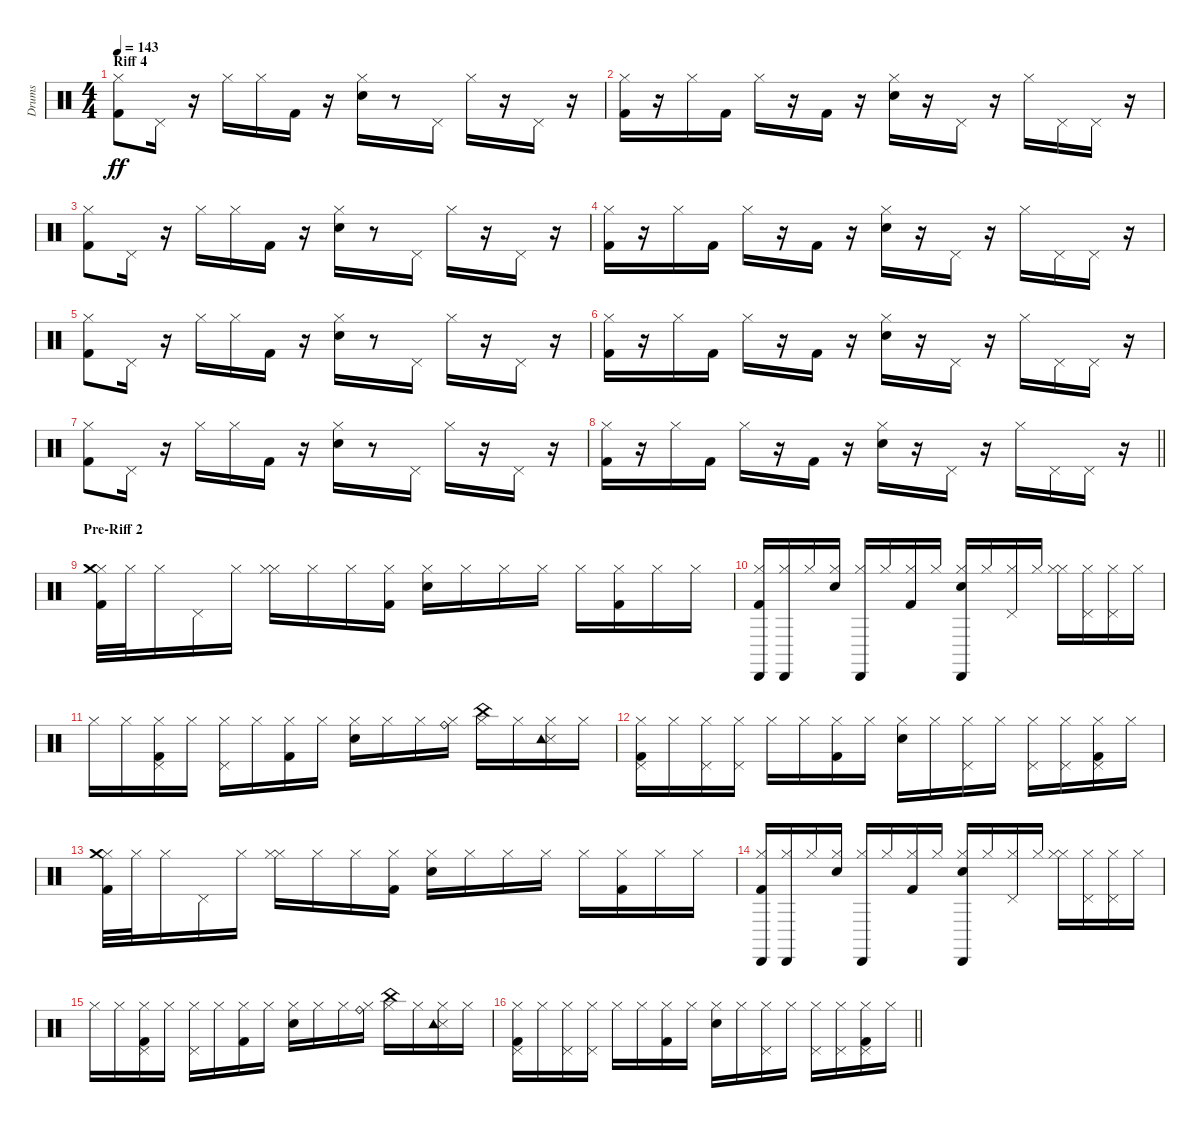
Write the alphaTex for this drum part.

\track ("Drums" "Drums") {instrument percussion}
\staff {score}
\articulation defaults
\ts (4 4)
\section ("" "Riff 4")
\tempo 143
\clef neutral
\ks c
("Kick (hit) 2" "Hi-Hat (closed)").8{dy ff} "Pedal Hi-Hat (hit)".16 r.16 "Hi-Hat (closed)".16 "Hi-Hat (closed)".16 "Kick (hit) 2".16 r.16 ("Snare (hit) 2" "Hi-Hat (closed)").16 r.8 "Pedal Hi-Hat (hit)".16 "Hi-Hat (closed)".16 r.16 "Pedal Hi-Hat (hit)".16 r.16 |
("Kick (hit) 2" "Hi-Hat (closed)").16 r.16 "Hi-Hat (closed)".16 "Kick (hit) 2".16 "Hi-Hat (closed)".16 r.16 "Kick (hit) 2".16 r.16 ("Snare (hit) 2" "Hi-Hat (closed)").16 r.16 "Pedal Hi-Hat (hit)".16 r.16 "Hi-Hat (closed)".16 "Pedal Hi-Hat (hit)".16 "Pedal Hi-Hat (hit)".16 r.16 |
("Kick (hit) 2" "Hi-Hat (closed)").8 "Pedal Hi-Hat (hit)".16 r.16 "Hi-Hat (closed)".16 "Hi-Hat (closed)".16 "Kick (hit) 2".16 r.16 ("Snare (hit) 2" "Hi-Hat (closed)").16 r.8 "Pedal Hi-Hat (hit)".16 "Hi-Hat (closed)".16 r.16 "Pedal Hi-Hat (hit)".16 r.16 |
("Kick (hit) 2" "Hi-Hat (closed)").16 r.16 "Hi-Hat (closed)".16 "Kick (hit) 2".16 "Hi-Hat (closed)".16 r.16 "Kick (hit) 2".16 r.16 ("Snare (hit) 2" "Hi-Hat (closed)").16 r.16 "Pedal Hi-Hat (hit)".16 r.16 "Hi-Hat (closed)".16 "Pedal Hi-Hat (hit)".16 "Pedal Hi-Hat (hit)".16 r.16 |
("Kick (hit) 2" "Hi-Hat (closed)").8 "Pedal Hi-Hat (hit)".16 r.16 "Hi-Hat (closed)".16 "Hi-Hat (closed)".16 "Kick (hit) 2".16 r.16 ("Snare (hit) 2" "Hi-Hat (closed)").16 r.8 "Pedal Hi-Hat (hit)".16 "Hi-Hat (closed)".16 r.16 "Pedal Hi-Hat (hit)".16 r.16 |
("Kick (hit) 2" "Hi-Hat (closed)").16 r.16 "Hi-Hat (closed)".16 "Kick (hit) 2".16 "Hi-Hat (closed)".16 r.16 "Kick (hit) 2".16 r.16 ("Snare (hit) 2" "Hi-Hat (closed)").16 r.16 "Pedal Hi-Hat (hit)".16 r.16 "Hi-Hat (closed)".16 "Pedal Hi-Hat (hit)".16 "Pedal Hi-Hat (hit)".16 r.16 |
("Kick (hit) 2" "Hi-Hat (closed)").8 "Pedal Hi-Hat (hit)".16 r.16 "Hi-Hat (closed)".16 "Hi-Hat (closed)".16 "Kick (hit) 2".16 r.16 ("Snare (hit) 2" "Hi-Hat (closed)").16 r.8 "Pedal Hi-Hat (hit)".16 "Hi-Hat (closed)".16 r.16 "Pedal Hi-Hat (hit)".16 r.16 |
\barLineRight lightlight
("Kick (hit) 2" "Hi-Hat (closed)").16 r.16 "Hi-Hat (closed)".16 "Kick (hit) 2".16 "Hi-Hat (closed)".16 r.16 "Kick (hit) 2".16 r.16 ("Snare (hit) 2" "Hi-Hat (closed)").16 r.16 "Pedal Hi-Hat (hit)".16 r.16 "Hi-Hat (closed)".16 "Pedal Hi-Hat (hit)".16 "Pedal Hi-Hat (hit)".16 r.16 |
\section ("" "Pre-Riff 2")
("Kick (hit) 2" "Hi-Hat (closed)" "Crash medium (hit)").32 "Hi-Hat (closed)".32 "Hi-Hat (closed)".16 "Pedal Hi-Hat (hit)".16 "Hi-Hat (closed)".16 ("Hi-Hat (closed)" "Hi-Hat (closed)").16 "Hi-Hat (closed)".16 "Hi-Hat (closed)".16 ("Kick (hit) 2" "Hi-Hat (closed)").16 ("Snare (hit) 2" "Hi-Hat (closed)").16 "Hi-Hat (closed)".16 "Hi-Hat (closed)".16 "Hi-Hat (closed)".16 "Hi-Hat (closed)".16 ("Kick (hit) 2" "Hi-Hat (closed)").16 "Hi-Hat (closed)".16 "Hi-Hat (closed)".16 |
("Kick (hit) 2" "Cabasa (hit)" "Hi-Hat (closed)").16 ("Cabasa (hit)" "Hi-Hat (closed)").16 "Hi-Hat (closed)".16 ("Snare (hit) 2" "Hi-Hat (closed)").16 ("Cabasa (hit)" "Hi-Hat (closed)").16 "Hi-Hat (closed)".16 ("Kick (hit) 2" "Hi-Hat (closed)").16 "Hi-Hat (closed)".16 ("Snare (hit) 2" "Cabasa (hit)" "Hi-Hat (closed)").16 "Hi-Hat (closed)".16 ("Pedal Hi-Hat (hit)" "Hi-Hat (closed)").16 "Hi-Hat (closed)".16 ("Hi-Hat (closed)" "Hi-Hat (closed)").16 ("Pedal Hi-Hat (hit)" "Hi-Hat (closed)").16 ("Pedal Hi-Hat (hit)" "Hi-Hat (closed)").16 "Hi-Hat (closed)".16 |
"Hi-Hat (closed)".16 "Hi-Hat (closed)".16 ("Kick (hit) 2" "Pedal Hi-Hat (hit)" "Hi-Hat (closed)").16 "Hi-Hat (closed)".16 ("Hi-Hat (closed)" "Pedal Hi-Hat (hit)").16 "Hi-Hat (closed)".16 ("Kick (hit) 2" "Hi-Hat (closed)").16 "Hi-Hat (closed)".16 ("Snare (hit) 2" "Hi-Hat (closed)").16 "Hi-Hat (closed)".16 "Hi-Hat (closed)".16 ("Ride (bell)" "Hi-Hat (closed)").16 ("China (hit)" "Hi-Hat (closed)").16 "Hi-Hat (closed)".16 ("Snare (side stick) 3" "Tambourine (hit)" "Hi-Hat (closed)").16 "Hi-Hat (closed)".16 |
("Kick (hit) 2" "Hi-Hat (closed)" "Pedal Hi-Hat (hit)").16 "Hi-Hat (closed)".16 ("Hi-Hat (closed)" "Pedal Hi-Hat (hit)").16 ("Hi-Hat (closed)" "Pedal Hi-Hat (hit)").16 "Hi-Hat (closed)".16 "Hi-Hat (closed)".16 ("Kick (hit) 2" "Hi-Hat (closed)").16 "Hi-Hat (closed)".16 ("Snare (hit) 2" "Hi-Hat (closed)").16 "Hi-Hat (closed)".16 ("Hi-Hat (closed)" "Pedal Hi-Hat (hit)").16 "Hi-Hat (closed)".16 ("Hi-Hat (closed)" "Pedal Hi-Hat (hit)").16 ("Hi-Hat (closed)" "Pedal Hi-Hat (hit)").16 ("Kick (hit) 2" "Hi-Hat (closed)" "Pedal Hi-Hat (hit)").16 "Hi-Hat (closed)".16 |
("Kick (hit) 2" "Hi-Hat (closed)" "Crash medium (hit)").32 "Hi-Hat (closed)".32 "Hi-Hat (closed)".16 "Pedal Hi-Hat (hit)".16 "Hi-Hat (closed)".16 ("Hi-Hat (closed)" "Hi-Hat (closed)").16 "Hi-Hat (closed)".16 "Hi-Hat (closed)".16 ("Kick (hit) 2" "Hi-Hat (closed)").16 ("Snare (hit) 2" "Hi-Hat (closed)").16 "Hi-Hat (closed)".16 "Hi-Hat (closed)".16 "Hi-Hat (closed)".16 "Hi-Hat (closed)".16 ("Kick (hit) 2" "Hi-Hat (closed)").16 "Hi-Hat (closed)".16 "Hi-Hat (closed)".16 |
("Kick (hit) 2" "Cabasa (hit)" "Hi-Hat (closed)").16 ("Cabasa (hit)" "Hi-Hat (closed)").16 "Hi-Hat (closed)".16 ("Snare (hit) 2" "Hi-Hat (closed)").16 ("Cabasa (hit)" "Hi-Hat (closed)").16 "Hi-Hat (closed)".16 ("Kick (hit) 2" "Hi-Hat (closed)").16 "Hi-Hat (closed)".16 ("Snare (hit) 2" "Cabasa (hit)" "Hi-Hat (closed)").16 "Hi-Hat (closed)".16 ("Pedal Hi-Hat (hit)" "Hi-Hat (closed)").16 "Hi-Hat (closed)".16 ("Hi-Hat (closed)" "Hi-Hat (closed)").16 ("Pedal Hi-Hat (hit)" "Hi-Hat (closed)").16 ("Pedal Hi-Hat (hit)" "Hi-Hat (closed)").16 "Hi-Hat (closed)".16 |
"Hi-Hat (closed)".16 "Hi-Hat (closed)".16 ("Kick (hit) 2" "Pedal Hi-Hat (hit)" "Hi-Hat (closed)").16 "Hi-Hat (closed)".16 ("Hi-Hat (closed)" "Pedal Hi-Hat (hit)").16 "Hi-Hat (closed)".16 ("Kick (hit) 2" "Hi-Hat (closed)").16 "Hi-Hat (closed)".16 ("Snare (hit) 2" "Hi-Hat (closed)").16 "Hi-Hat (closed)".16 "Hi-Hat (closed)".16 ("Ride (bell)" "Hi-Hat (closed)").16 ("China (hit)" "Hi-Hat (closed)").16 "Hi-Hat (closed)".16 ("Snare (side stick) 3" "Tambourine (hit)" "Hi-Hat (closed)").16 "Hi-Hat (closed)".16 |
\barLineRight lightlight
("Kick (hit) 2" "Hi-Hat (closed)" "Pedal Hi-Hat (hit)").16 "Hi-Hat (closed)".16 ("Hi-Hat (closed)" "Pedal Hi-Hat (hit)").16 ("Hi-Hat (closed)" "Pedal Hi-Hat (hit)").16 "Hi-Hat (closed)".16 "Hi-Hat (closed)".16 ("Kick (hit) 2" "Hi-Hat (closed)").16 "Hi-Hat (closed)".16 ("Snare (hit) 2" "Hi-Hat (closed)").16 "Hi-Hat (closed)".16 ("Hi-Hat (closed)" "Pedal Hi-Hat (hit)").16 "Hi-Hat (closed)".16 ("Hi-Hat (closed)" "Pedal Hi-Hat (hit)").16 ("Hi-Hat (closed)" "Pedal Hi-Hat (hit)").16 ("Kick (hit) 2" "Hi-Hat (closed)" "Pedal Hi-Hat (hit)").16 "Hi-Hat (closed)".16
